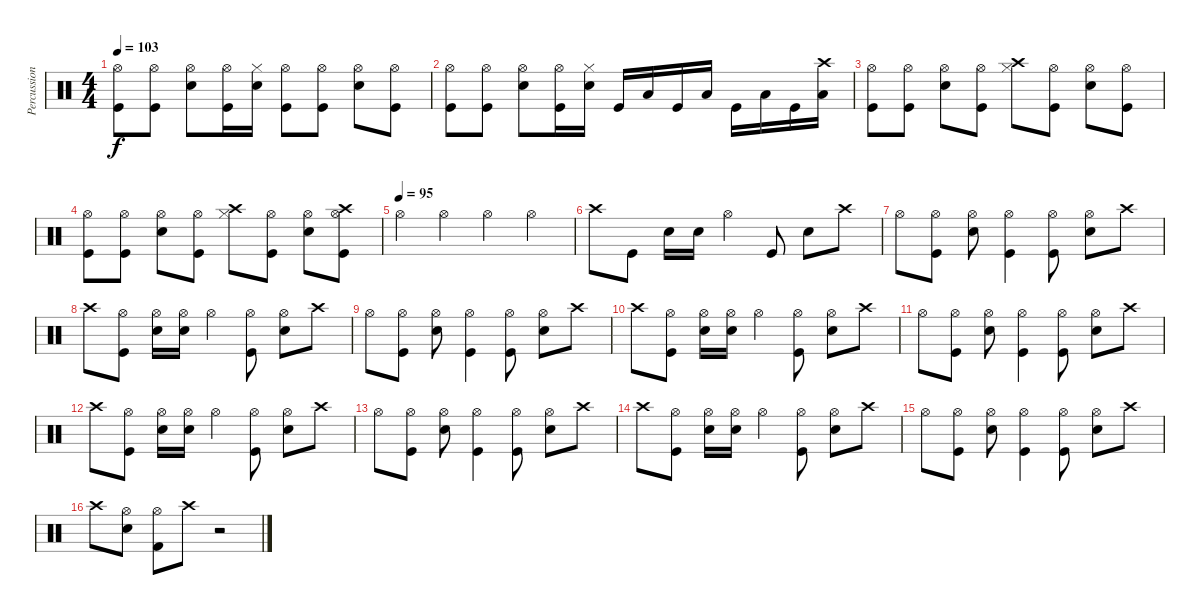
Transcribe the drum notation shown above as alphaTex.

\track ("Percussion" "Percussion") {instrument percussion}
\staff {score}
\articulation defaults
\ts (4 4)
\tempo 103
\clef neutral
\ks c
("Kick (hit)" "Hi-Hat (open)").8{dy f} ("Kick (hit)" "Hi-Hat (open)").8 ("Snare (hit) 2" "Hi-Hat (open)").8 ("Kick (hit)" "Hi-Hat (open)").16 ("Snare (hit) 2" "Hi-Hat (closed)").16 ("Kick (hit)" "Hi-Hat (open)").8 ("Kick (hit)" "Hi-Hat (open)").8 ("Snare (hit) 2" "Hi-Hat (open)").8 ("Kick (hit)" "Hi-Hat (open)").8 |
("Kick (hit)" "Hi-Hat (open)").8 ("Kick (hit)" "Hi-Hat (open)").8 ("Snare (hit) 2" "Hi-Hat (open)").8 ("Kick (hit)" "Hi-Hat (open)").16 ("Snare (hit) 2" "Hi-Hat (closed)").16 "Kick (hit)".16 "Low Floor Tom (hit)".16 "Kick (hit)".16 "Low Floor Tom (hit)".16 "Kick (hit)".16 "Low Floor Tom (hit)".16 "Kick (hit)".16 ("Low Floor Tom (hit)" "Crash high (hit)").16 |
("Kick (hit)" "Hi-Hat (open)").8 ("Kick (hit)" "Hi-Hat (open)").8 ("Snare (hit) 2" "Hi-Hat (open)").8 ("Kick (hit)" "Hi-Hat (open)").8 ("Hi-Hat (closed)" "Crash high (hit)").8 ("Kick (hit)" "Hi-Hat (open)").8 ("Snare (hit) 2" "Hi-Hat (open)").8 ("Kick (hit)" "Hi-Hat (open)").8 |
("Kick (hit)" "Hi-Hat (open)").8 ("Kick (hit)" "Hi-Hat (open)").8 ("Snare (hit) 2" "Hi-Hat (open)").8 ("Kick (hit)" "Hi-Hat (open)").8 ("Hi-Hat (closed)" "Crash high (hit)").8 ("Kick (hit)" "Hi-Hat (open)").8 ("Snare (hit) 2" "Hi-Hat (open)").8 ("Kick (hit)" "Hi-Hat (open)" "Crash high (hit)").8 |
\tempo (95)
"Hi-Hat (open)".4 "Hi-Hat (open)".4 "Hi-Hat (open)".4 "Hi-Hat (open)".4 |
"Crash high (hit)".8 "Kick (hit)".8 "Snare (hit) 2".16 "Snare (hit) 2".16 "Hi-Hat (open)".4 "Kick (hit)".8 "Snare (hit) 2".8 "Crash high (hit)".8 |
"Hi-Hat (open)".8 ("Kick (hit)" "Hi-Hat (open)").8 ("Snare (hit) 2" "Hi-Hat (open)").8 ("Kick (hit)" "Hi-Hat (open)").4 ("Kick (hit)" "Hi-Hat (open)").8 ("Snare (hit) 2" "Hi-Hat (open)").8 "Crash high (hit)".8 |
"Crash high (hit)".8 ("Kick (hit)" "Hi-Hat (open)").8 ("Snare (hit) 2" "Hi-Hat (open)").16 ("Snare (hit) 2" "Hi-Hat (open)").16 "Hi-Hat (open)".4 ("Kick (hit)" "Hi-Hat (open)").8 ("Snare (hit) 2" "Hi-Hat (open)").8 "Crash high (hit)".8 |
"Hi-Hat (open)".8 ("Kick (hit)" "Hi-Hat (open)").8 ("Snare (hit) 2" "Hi-Hat (open)").8 ("Kick (hit)" "Hi-Hat (open)").4 ("Kick (hit)" "Hi-Hat (open)").8 ("Snare (hit) 2" "Hi-Hat (open)").8 "Crash high (hit)".8 |
"Crash high (hit)".8 ("Kick (hit)" "Hi-Hat (open)").8 ("Snare (hit) 2" "Hi-Hat (open)").16 ("Snare (hit) 2" "Hi-Hat (open)").16 "Hi-Hat (open)".4 ("Kick (hit)" "Hi-Hat (open)").8 ("Snare (hit) 2" "Hi-Hat (open)").8 "Crash high (hit)".8 |
"Hi-Hat (open)".8 ("Kick (hit)" "Hi-Hat (open)").8 ("Snare (hit) 2" "Hi-Hat (open)").8 ("Kick (hit)" "Hi-Hat (open)").4 ("Kick (hit)" "Hi-Hat (open)").8 ("Snare (hit) 2" "Hi-Hat (open)").8 "Crash high (hit)".8 |
"Crash high (hit)".8 ("Kick (hit)" "Hi-Hat (open)").8 ("Snare (hit) 2" "Hi-Hat (open)").16 ("Snare (hit) 2" "Hi-Hat (open)").16 "Hi-Hat (open)".4 ("Kick (hit)" "Hi-Hat (open)").8 ("Snare (hit) 2" "Hi-Hat (open)").8 "Crash high (hit)".8 |
"Hi-Hat (open)".8 ("Kick (hit)" "Hi-Hat (open)").8 ("Snare (hit) 2" "Hi-Hat (open)").8 ("Kick (hit)" "Hi-Hat (open)").4 ("Kick (hit)" "Hi-Hat (open)").8 ("Snare (hit) 2" "Hi-Hat (open)").8 "Crash high (hit)".8 |
"Crash high (hit)".8 ("Kick (hit)" "Hi-Hat (open)").8 ("Snare (hit) 2" "Hi-Hat (open)").16 ("Snare (hit) 2" "Hi-Hat (open)").16 "Hi-Hat (open)".4 ("Kick (hit)" "Hi-Hat (open)").8 ("Snare (hit) 2" "Hi-Hat (open)").8 "Crash high (hit)".8 |
"Hi-Hat (open)".8 ("Kick (hit)" "Hi-Hat (open)").8 ("Snare (hit) 2" "Hi-Hat (open)").8 ("Kick (hit)" "Hi-Hat (open)").4 ("Kick (hit)" "Hi-Hat (open)").8 ("Snare (hit) 2" "Hi-Hat (open)").8 "Crash high (hit)".8 |
"Crash high (hit)".8 ("Snare (hit) 2" "Hi-Hat (open)").8 ("Kick (hit) 2" "Hi-Hat (open)").8 "Crash high (hit)".8 r.2
